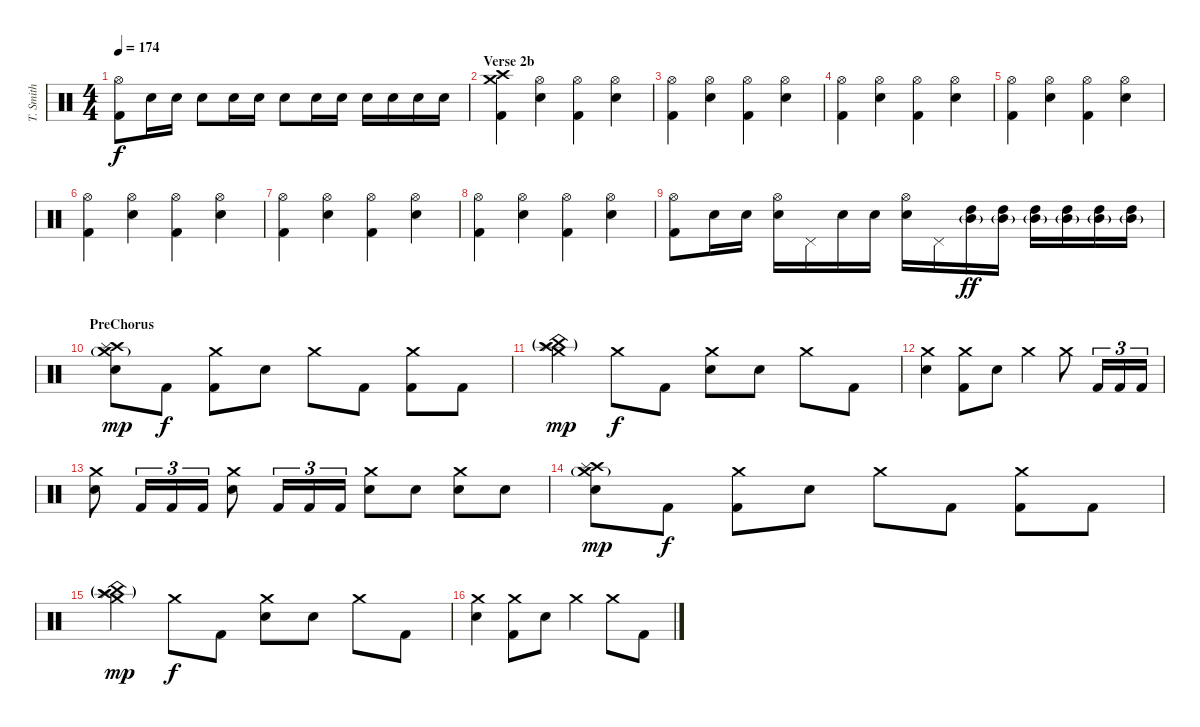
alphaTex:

\track ("T. Smith" "T. Smith") {instrument percussion}
\staff {score}
\articulation defaults
\ts (4 4)
\tempo 174
\clef neutral
\ks c
("Hi-Hat (open)" "Kick (hit) 2").8{dy f} "Electric Snare (hit)".16 "Electric Snare (hit)".16 "Electric Snare (hit)".8 "Electric Snare (hit)".16 "Electric Snare (hit)".16 "Electric Snare (hit)".8 "Electric Snare (hit)".16 "Electric Snare (hit)".16 "Electric Snare (hit)".16 "Electric Snare (hit)".16 "Electric Snare (hit)".16 "Electric Snare (hit)".16 |
\section ("" "Verse 2b")
("Crash high (hit)" "Crash medium (hit)" "Kick (hit) 2").4 ("Hi-Hat (open)" "Electric Snare (hit)").4 ("Hi-Hat (open)" "Kick (hit) 2").4 ("Hi-Hat (open)" "Electric Snare (hit)").4 |
("Hi-Hat (open)" "Kick (hit) 2").4 ("Hi-Hat (open)" "Electric Snare (hit)").4 ("Hi-Hat (open)" "Kick (hit) 2").4 ("Hi-Hat (open)" "Electric Snare (hit)").4 |
("Hi-Hat (open)" "Kick (hit) 2").4 ("Hi-Hat (open)" "Electric Snare (hit)").4 ("Hi-Hat (open)" "Kick (hit) 2").4 ("Hi-Hat (open)" "Electric Snare (hit)").4 |
("Hi-Hat (open)" "Kick (hit) 2").4 ("Hi-Hat (open)" "Electric Snare (hit)").4 ("Hi-Hat (open)" "Kick (hit) 2").4 ("Hi-Hat (open)" "Electric Snare (hit)").4 |
("Hi-Hat (open)" "Kick (hit) 2").4 ("Hi-Hat (open)" "Electric Snare (hit)").4 ("Hi-Hat (open)" "Kick (hit) 2").4 ("Hi-Hat (open)" "Electric Snare (hit)").4 |
("Hi-Hat (open)" "Kick (hit) 2").4 ("Hi-Hat (open)" "Electric Snare (hit)").4 ("Hi-Hat (open)" "Kick (hit) 2").4 ("Hi-Hat (open)" "Electric Snare (hit)").4 |
("Hi-Hat (open)" "Kick (hit) 2").4 ("Hi-Hat (open)" "Electric Snare (hit)").4 ("Hi-Hat (open)" "Kick (hit) 2").4 ("Hi-Hat (open)" "Electric Snare (hit)").4 |
("Hi-Hat (open)" "Kick (hit) 2").8 "Electric Snare (hit)".16 "Electric Snare (hit)".16 ("Hi-Hat (open)" "Electric Snare (hit)").16 "Pedal Hi-Hat (hit)".16 "Electric Snare (hit)".16 "Electric Snare (hit)".16 ("Hi-Hat (open)" "Electric Snare (hit)").16 "Pedal Hi-Hat (hit)".16 ("Mid Tom (hit)"{g} "High Tom (hit)").16{dy ff} ("Mid Tom (hit)"{g} "High Tom (hit)").16 ("Mid Tom (hit)"{g} "High Tom (hit)").16 ("Mid Tom (hit)"{g} "High Tom (hit)").16 ("Mid Tom (hit)"{g} "High Tom (hit)").16 ("Mid Tom (hit)"{g} "High Tom (hit)").16 |
\section ("" "PreChorus")
("Crash medium (hit)"{g} "Crash high (hit)" "Splash (hit)" "Electric Snare (hit)").8{dy mp} "Kick (hit) 2".8{dy f} ("Crash medium (hit)" "Kick (hit) 2").8 "Electric Snare (hit)".8 "Crash medium (hit)".8 "Kick (hit) 2".8 ("Crash medium (hit)" "Kick (hit) 2").8 "Kick (hit) 2".8 |
("Crash medium (hit)" "Crash high (hit)"{g} "Splash (hit)" "China (hit)"{g}).4{dy mp} "Crash medium (hit)".8{dy f} "Kick (hit) 2".8 ("Crash medium (hit)" "Electric Snare (hit)").8 "Electric Snare (hit)".8 "Crash medium (hit)".8 "Kick (hit) 2".8 |
("Crash medium (hit)" "Electric Snare (hit)").4 ("Crash medium (hit)" "Kick (hit) 2").8 "Electric Snare (hit)".8 "Crash medium (hit)".4 "Crash medium (hit)".8 "Kick (hit) 2".16{tu (3 2)} "Kick (hit) 2".16{tu (3 2)} "Kick (hit) 2".16{tu (3 2)} |
("Crash medium (hit)" "Electric Snare (hit)").8 "Kick (hit) 2".16{tu (3 2)} "Kick (hit) 2".16{tu (3 2)} "Kick (hit) 2".16{tu (3 2)} ("Crash medium (hit)" "Electric Snare (hit)").8 "Kick (hit) 2".16{tu (3 2)} "Kick (hit) 2".16{tu (3 2)} "Kick (hit) 2".16{tu (3 2)} ("Crash medium (hit)" "Electric Snare (hit)").8 "Electric Snare (hit)".8 ("Crash medium (hit)" "Electric Snare (hit)").8 "Electric Snare (hit)".8 |
("Crash medium (hit)"{g} "Crash high (hit)" "Splash (hit)" "Electric Snare (hit)").8{dy mp} "Kick (hit) 2".8{dy f} ("Crash medium (hit)" "Kick (hit) 2").8 "Electric Snare (hit)".8 "Crash medium (hit)".8 "Kick (hit) 2".8 ("Crash medium (hit)" "Kick (hit) 2").8 "Kick (hit) 2".8 |
("Crash medium (hit)" "Crash high (hit)"{g} "Splash (hit)" "China (hit)"{g}).4{dy mp} "Crash medium (hit)".8{dy f} "Kick (hit) 2".8 ("Crash medium (hit)" "Electric Snare (hit)").8 "Electric Snare (hit)".8 "Crash medium (hit)".8 "Kick (hit) 2".8 |
("Crash medium (hit)" "Electric Snare (hit)").4 ("Crash medium (hit)" "Kick (hit) 2").8 "Electric Snare (hit)".8 "Crash medium (hit)".4 "Crash medium (hit)".8 "Kick (hit) 2".8
